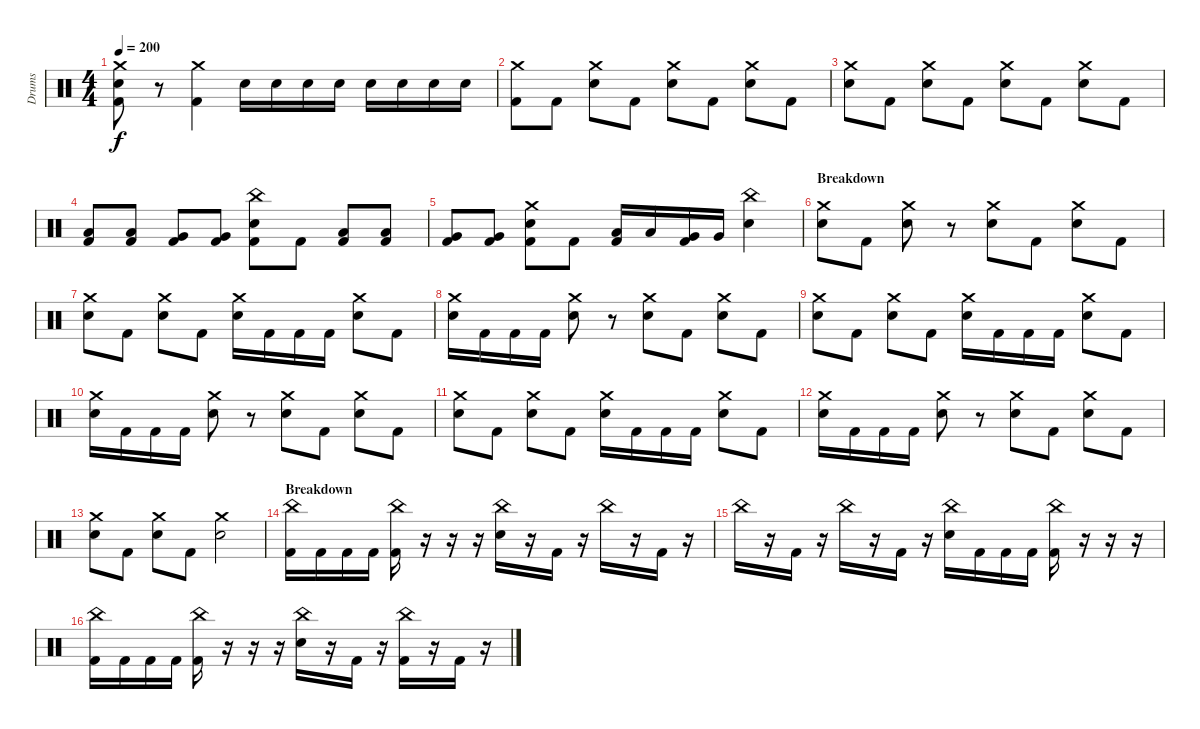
\track ("Drums" "Drums") {instrument percussion}
\staff {score}
\articulation defaults
\ts (4 4)
\tempo 200
\clef neutral
\ks c
("Crash medium (hit)" "Electric Snare (hit)" "Kick (hit) 2").8{dy f} r.8 ("Crash medium (hit)" "Kick (hit) 2").4 "Electric Snare (hit)".16 "Electric Snare (hit)".16 "Electric Snare (hit)".16 "Electric Snare (hit)".16 "Electric Snare (hit)".16 "Electric Snare (hit)".16 "Electric Snare (hit)".16 "Electric Snare (hit)".16 |
("Crash medium (hit)" "Kick (hit) 2").8 "Kick (hit) 2".8 ("Crash medium (hit)" "Electric Snare (hit)").8 "Kick (hit) 2".8 ("Crash medium (hit)" "Electric Snare (hit)").8 "Kick (hit) 2".8 ("Crash medium (hit)" "Electric Snare (hit)").8 "Kick (hit) 2".8 |
("Crash medium (hit)" "Electric Snare (hit)").8 "Kick (hit) 2".8 ("Crash medium (hit)" "Electric Snare (hit)").8 "Kick (hit) 2".8 ("Crash medium (hit)" "Electric Snare (hit)").8 "Kick (hit) 2".8 ("Crash medium (hit)" "Electric Snare (hit)").8 "Kick (hit) 2".8 |
("Low Tom (hit)" "Kick (hit) 2").8 ("Low Tom (hit)" "Kick (hit) 2").8 ("Very Low Tom (hit)" "Kick (hit) 2").8 ("Very Low Tom (hit)" "Kick (hit) 2").8 ("China (hit)" "Electric Snare (hit)" "Kick (hit) 2").8 "Kick (hit) 2".8 ("Low Tom (hit)" "Kick (hit) 2").8 ("Low Tom (hit)" "Kick (hit) 2").8 |
("Very Low Tom (hit)" "Kick (hit) 2").8 ("Very Low Tom (hit)" "Kick (hit) 2").8 ("Crash medium (hit)" "Electric Snare (hit)" "Kick (hit) 2").8 "Kick (hit) 2".8 ("Low Tom (hit)" "Kick (hit) 2").16 "Low Tom (hit)".16 ("Very Low Tom (hit)" "Kick (hit) 2").16 "Very Low Tom (hit)".16 ("China (hit)" "Electric Snare (hit)").4 |
\section ("" "Breakdown")
("Crash medium (hit)" "Electric Snare (hit)").8 "Kick (hit) 2".8 ("Crash medium (hit)" "Electric Snare (hit)").8 r.8 ("Crash medium (hit)" "Electric Snare (hit)").8 "Kick (hit) 2".8 ("Crash medium (hit)" "Electric Snare (hit)").8 "Kick (hit) 2".8 |
("Crash medium (hit)" "Electric Snare (hit)").8 "Kick (hit) 2".8 ("Crash medium (hit)" "Electric Snare (hit)").8 "Kick (hit) 2".8 ("Crash medium (hit)" "Electric Snare (hit)").16 "Kick (hit) 2".16 "Kick (hit) 2".16 "Kick (hit) 2".16 ("Crash medium (hit)" "Electric Snare (hit)").8 "Kick (hit) 2".8 |
("Crash medium (hit)" "Electric Snare (hit)").16 "Kick (hit) 2".16 "Kick (hit) 2".16 "Kick (hit) 2".16 ("Crash medium (hit)" "Electric Snare (hit)").8 r.8 ("Crash medium (hit)" "Electric Snare (hit)").8 "Kick (hit) 2".8 ("Crash medium (hit)" "Electric Snare (hit)").8 "Kick (hit) 2".8 |
("Crash medium (hit)" "Electric Snare (hit)").8 "Kick (hit) 2".8 ("Crash medium (hit)" "Electric Snare (hit)").8 "Kick (hit) 2".8 ("Crash medium (hit)" "Electric Snare (hit)").16 "Kick (hit) 2".16 "Kick (hit) 2".16 "Kick (hit) 2".16 ("Crash medium (hit)" "Electric Snare (hit)").8 "Kick (hit) 2".8 |
("Crash medium (hit)" "Electric Snare (hit)").16 "Kick (hit) 2".16 "Kick (hit) 2".16 "Kick (hit) 2".16 ("Crash medium (hit)" "Electric Snare (hit)").8 r.8 ("Crash medium (hit)" "Electric Snare (hit)").8 "Kick (hit) 2".8 ("Crash medium (hit)" "Electric Snare (hit)").8 "Kick (hit) 2".8 |
("Crash medium (hit)" "Electric Snare (hit)").8 "Kick (hit) 2".8 ("Crash medium (hit)" "Electric Snare (hit)").8 "Kick (hit) 2".8 ("Crash medium (hit)" "Electric Snare (hit)").16 "Kick (hit) 2".16 "Kick (hit) 2".16 "Kick (hit) 2".16 ("Crash medium (hit)" "Electric Snare (hit)").8 "Kick (hit) 2".8 |
("Crash medium (hit)" "Electric Snare (hit)").16 "Kick (hit) 2".16 "Kick (hit) 2".16 "Kick (hit) 2".16 ("Crash medium (hit)" "Electric Snare (hit)").8 r.8 ("Crash medium (hit)" "Electric Snare (hit)").8 "Kick (hit) 2".8 ("Crash medium (hit)" "Electric Snare (hit)").8 "Kick (hit) 2".8 |
("Crash medium (hit)" "Electric Snare (hit)").8 "Kick (hit) 2".8 ("Crash medium (hit)" "Electric Snare (hit)").8 "Kick (hit) 2".8 ("Crash medium (hit)" "Electric Snare (hit)").2 |
\section ("" "Breakdown")
("China (hit)" "Kick (hit) 2").16 "Kick (hit) 2".16 "Kick (hit) 2".16 "Kick (hit) 2".16 ("China (hit)" "Kick (hit) 2").16 r.16 r.16 r.16 ("China (hit)" "Electric Snare (hit)").16 r.16 "Kick (hit) 2".16 r.16 "China (hit)".16 r.16 "Kick (hit) 2".16 r.16 |
"China (hit)".16 r.16 "Kick (hit) 2".16 r.16 "China (hit)".16 r.16 "Kick (hit) 2".16 r.16 ("China (hit)" "Electric Snare (hit)").16 "Kick (hit) 2".16 "Kick (hit) 2".16 "Kick (hit) 2".16 ("China (hit)" "Kick (hit) 2").16 r.16 r.16 r.16 |
("China (hit)" "Kick (hit) 2").16 "Kick (hit) 2".16 "Kick (hit) 2".16 "Kick (hit) 2".16 ("China (hit)" "Kick (hit) 2").16 r.16 r.16 r.16 ("China (hit)" "Electric Snare (hit)").16 r.16 "Kick (hit) 2".16 r.16 ("China (hit)" "Kick (hit) 2").16 r.16 "Kick (hit) 2".16 r.16
